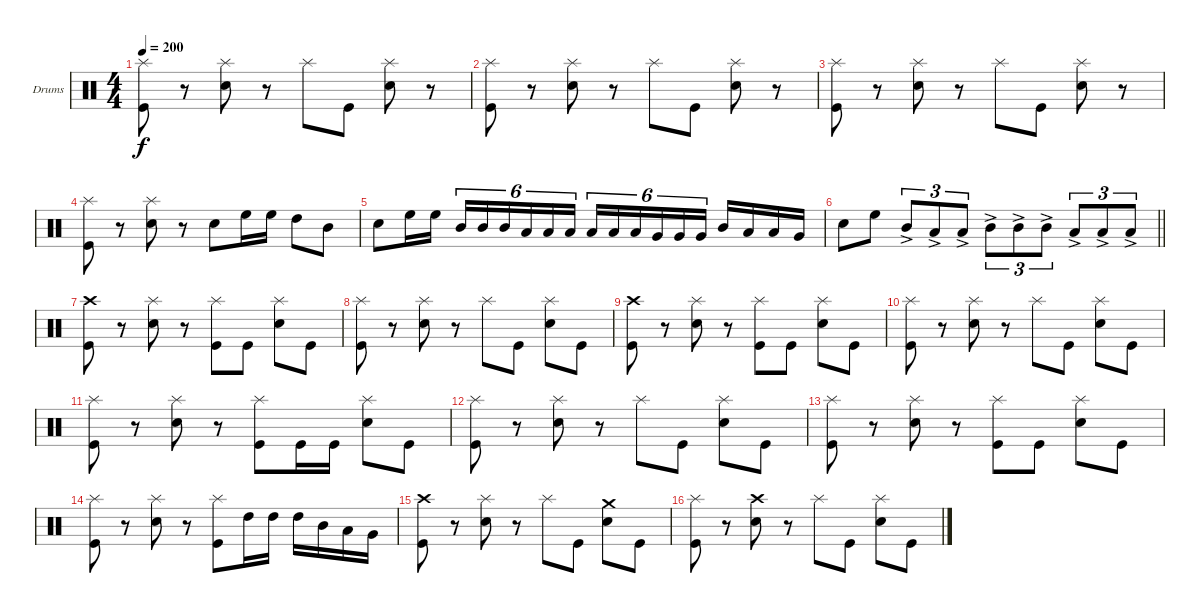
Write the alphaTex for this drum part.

\bracketExtendMode groupsimilarinstruments
\firstSystemTrackNameOrientation horizontal
\otherSystemsTrackNameOrientation horizontal
\track ("Drumkit" "Drums") {instrument percussion}
\staff {score}
\articulation defaults
\ts (4 4)
\tempo 200
\clef neutral
\ks c
("Splash (hit)" "Kick (hit)").8{dy f} r.8 ("Splash (hit)" "Snare (hit) 2").8 r.8 "Splash (hit)".8 "Kick (hit)".8 ("Splash (hit)" "Snare (hit) 2").8 r.8 |
("Splash (hit)" "Kick (hit)").8 r.8 ("Splash (hit)" "Snare (hit) 2").8 r.8 "Splash (hit)".8 "Kick (hit)".8 ("Splash (hit)" "Snare (hit) 2").8 r.8 |
("Splash (hit)" "Kick (hit)").8 r.8 ("Splash (hit)" "Snare (hit) 2").8 r.8 "Splash (hit)".8 "Kick (hit)".8 ("Splash (hit)" "Snare (hit) 2").8 r.8 |
("Splash (hit)" "Kick (hit)").8 r.8 ("Splash (hit)" "Snare (hit) 2").8 r.8 "Snare (hit) 2".8 "High Floor Tom (hit)".16 "High Floor Tom (hit)".16 "High Tom (hit)".8 "Mid Tom (hit)".8 |
"Snare (hit) 2".8 "High Floor Tom (hit)".16 "High Floor Tom (hit)".16 "Mid Tom (hit)".16{tu (6 4)} "Mid Tom (hit)".16{tu (6 4)} "Mid Tom (hit)".16{tu (6 4)} "Low Tom (hit)".16{tu (6 4)} "Low Tom (hit)".16{tu (6 4)} "Low Tom (hit)".16{tu (6 4)} "Low Tom (hit)".16{tu (6 4)} "Low Tom (hit)".16{tu (6 4)} "Low Tom (hit)".16{tu (6 4)} "Very Low Tom (hit)".16{tu (6 4)} "Very Low Tom (hit)".16{tu (6 4)} "Very Low Tom (hit)".16{tu (6 4)} "Mid Tom (hit)".16 "Low Tom (hit)".16 "Low Tom (hit)".16 "Very Low Tom (hit)".16 |
\barLineRight lightlight "Snare (hit) 2".8 "High Floor Tom (hit)".8 "Mid Tom (hit)"{ac}.8{tu (3 2)} "Low Tom (hit)"{ac}.8{tu (3 2)} "Low Tom (hit)"{ac}.8{tu (3 2)} "Mid Tom (hit)"{ac}.8{tu (3 2)} "Mid Tom (hit)"{ac}.8{tu (3 2)} "Mid Tom (hit)"{ac}.8{tu (3 2)} "Low Tom (hit)"{ac}.8{tu (3 2)} "Low Tom (hit)"{ac}.8{tu (3 2)} "Low Tom (hit)"{ac}.8{tu (3 2)}
|
("Crash high (hit)" "Kick (hit)").8 r.8 ("Splash (hit)" "Snare (hit) 2").8 r.8 ("Splash (hit)" "Kick (hit)").8 "Kick (hit)".8 ("Splash (hit)" "Snare (hit) 2").8 "Kick (hit)".8 |
("Splash (hit)" "Kick (hit)").8 r.8 ("Splash (hit)" "Snare (hit) 2").8 r.8 "Splash (hit)".8 "Kick (hit)".8 ("Splash (hit)" "Snare (hit) 2").8 "Kick (hit)".8 |
("Crash high (hit)" "Kick (hit)").8 r.8 ("Splash (hit)" "Snare (hit) 2").8 r.8 ("Splash (hit)" "Kick (hit)").8 "Kick (hit)".8 ("Splash (hit)" "Snare (hit) 2").8 "Kick (hit)".8 |
("Splash (hit)" "Kick (hit)").8 r.8 ("Splash (hit)" "Snare (hit) 2").8 r.8 "Splash (hit)".8 "Kick (hit)".8 ("Splash (hit)" "Snare (hit) 2").8 "Kick (hit)".8 |
("Splash (hit)" "Kick (hit)").8 r.8 ("Splash (hit)" "Snare (hit) 2").8 r.8 ("Splash (hit)" "Kick (hit)").8 "Kick (hit)".16 "Kick (hit)".16 ("Splash (hit)" "Snare (hit) 2").8 "Kick (hit)".8 |
("Splash (hit)" "Kick (hit)").8 r.8 ("Splash (hit)" "Snare (hit) 2").8 r.8 "Splash (hit)".8 "Kick (hit)".8 ("Splash (hit)" "Snare (hit) 2").8 "Kick (hit)".8 |
("Splash (hit)" "Kick (hit)").8 r.8 ("Splash (hit)" "Snare (hit) 2").8 r.8 ("Splash (hit)" "Kick (hit)").8 "Kick (hit)".8 ("Splash (hit)" "Snare (hit) 2").8 "Kick (hit)".8 |
("Splash (hit)" "Kick (hit)").8 r.8 ("Splash (hit)" "Snare (hit) 2").8 r.8 ("Splash (hit)" "Kick (hit)").8 "High Tom (hit)".16 "High Tom (hit)".16 "High Tom (hit)".16 "Mid Tom (hit)".16 "Low Tom (hit)".16 "Very Low Tom (hit)".16 |
("Crash high (hit)" "Kick (hit)").8 r.8 ("Splash (hit)" "Snare (hit) 2").8 r.8 "Splash (hit)".8 "Kick (hit)".8 ("Crash medium (hit)" "Snare (hit) 2").8 "Kick (hit)".8 |
("Splash (hit)" "Kick (hit)").8 r.8 ("Crash high (hit)" "Snare (hit) 2").8 r.8 "Splash (hit)".8 "Kick (hit)".8 ("Splash (hit)" "Snare (hit) 2").8 "Kick (hit)".8
